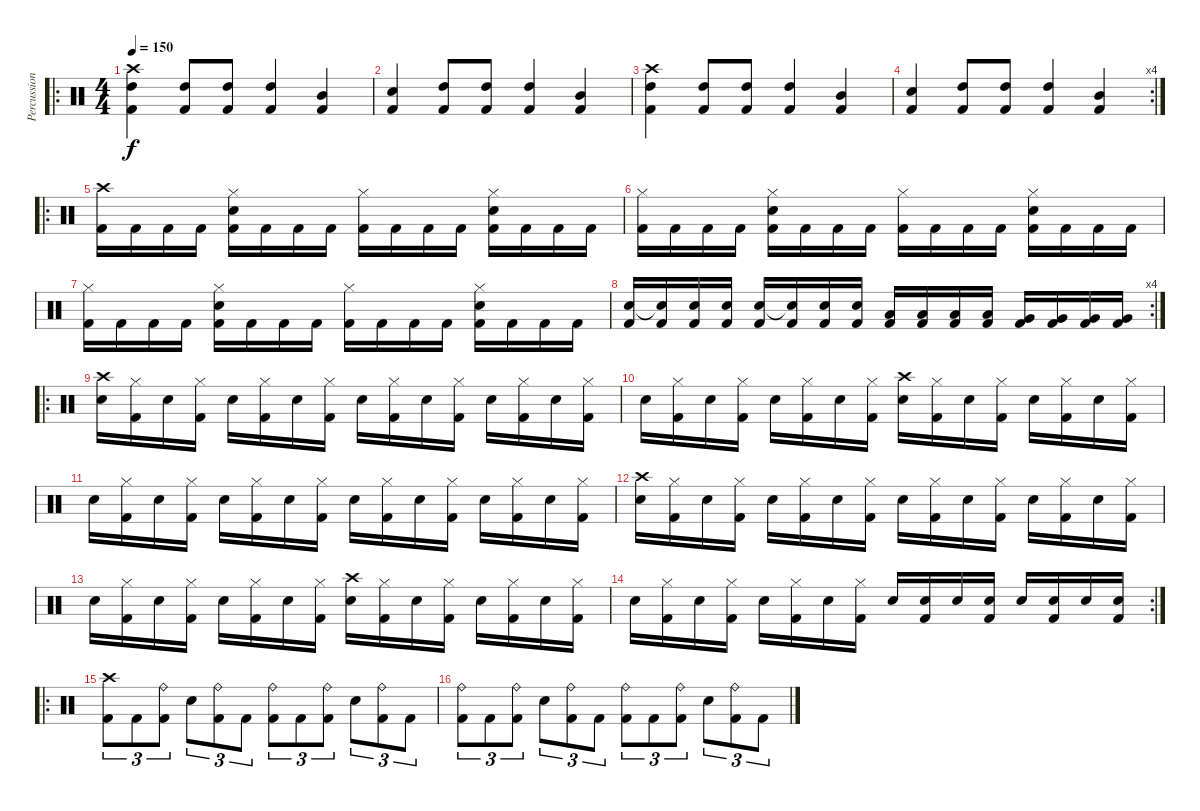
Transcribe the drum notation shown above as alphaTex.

\track ("Percussion" "Percussion") {instrument percussion}
\staff {score}
\articulation defaults
\ro
\ts (4 4)
\tempo 150
\clef neutral
\ks c
("Crash high (hit)" "High Tom (hit)" "Kick (hit) 2").4{dy f} ("High Tom (hit)" "Kick (hit) 2").8 ("High Tom (hit)" "Kick (hit) 2").8 ("High Tom (hit)" "Kick (hit) 2").4 ("Mid Tom (hit)" "Kick (hit) 2").4 |
("Electric Snare (hit)" "Kick (hit) 2").4 ("High Tom (hit)" "Kick (hit) 2").8 ("High Tom (hit)" "Kick (hit) 2").8 ("High Tom (hit)" "Kick (hit) 2").4 ("Mid Tom (hit)" "Kick (hit) 2").4 |
("Crash high (hit)" "High Tom (hit)" "Kick (hit) 2").4 ("High Tom (hit)" "Kick (hit) 2").8 ("High Tom (hit)" "Kick (hit) 2").8 ("High Tom (hit)" "Kick (hit) 2").4 ("Mid Tom (hit)" "Kick (hit) 2").4 |
\rc 4
("Electric Snare (hit)" "Kick (hit) 2").4 ("High Tom (hit)" "Kick (hit) 2").8 ("High Tom (hit)" "Kick (hit) 2").8 ("High Tom (hit)" "Kick (hit) 2").4 ("Mid Tom (hit)" "Kick (hit) 2").4 |
\ro
("Crash high (hit)" "Kick (hit) 2").16 "Kick (hit) 2".16 "Kick (hit) 2".16 "Kick (hit) 2".16 ("Hi-Hat (closed)" "Electric Snare (hit)" "Kick (hit) 2").16 "Kick (hit) 2".16 "Kick (hit) 2".16 "Kick (hit) 2".16 ("Hi-Hat (closed)" "Kick (hit) 2").16 "Kick (hit) 2".16 "Kick (hit) 2".16 "Kick (hit) 2".16 ("Hi-Hat (closed)" "Electric Snare (hit)" "Kick (hit) 2").16 "Kick (hit) 2".16 "Kick (hit) 2".16 "Kick (hit) 2".16 |
("Hi-Hat (closed)" "Kick (hit) 2").16 "Kick (hit) 2".16 "Kick (hit) 2".16 "Kick (hit) 2".16 ("Hi-Hat (closed)" "Electric Snare (hit)" "Kick (hit) 2").16 "Kick (hit) 2".16 "Kick (hit) 2".16 "Kick (hit) 2".16 ("Hi-Hat (closed)" "Kick (hit) 2").16 "Kick (hit) 2".16 "Kick (hit) 2".16 "Kick (hit) 2".16 ("Hi-Hat (closed)" "Electric Snare (hit)" "Kick (hit) 2").16 "Kick (hit) 2".16 "Kick (hit) 2".16 "Kick (hit) 2".16 |
("Hi-Hat (closed)" "Kick (hit) 2").16 "Kick (hit) 2".16 "Kick (hit) 2".16 "Kick (hit) 2".16 ("Hi-Hat (closed)" "Electric Snare (hit)" "Kick (hit) 2").16 "Kick (hit) 2".16 "Kick (hit) 2".16 "Kick (hit) 2".16 ("Hi-Hat (closed)" "Kick (hit) 2").16 "Kick (hit) 2".16 "Kick (hit) 2".16 "Kick (hit) 2".16 ("Hi-Hat (closed)" "Electric Snare (hit)" "Kick (hit) 2").16 "Kick (hit) 2".16 "Kick (hit) 2".16 "Kick (hit) 2".16 |
\rc 4
("Electric Snare (hit)" "Kick (hit) 2").16 ("Electric Snare (hit)"{t} "Kick (hit) 2").16 ("Electric Snare (hit)" "Kick (hit) 2").16 ("Electric Snare (hit)" "Kick (hit) 2").16 ("Electric Snare (hit)" "Kick (hit) 2").16 ("Electric Snare (hit)"{t} "Kick (hit) 2").16 ("Electric Snare (hit)" "Kick (hit) 2").16 ("Electric Snare (hit)" "Kick (hit) 2").16 ("Low Tom (hit)" "Kick (hit) 2").16 ("Low Tom (hit)" "Kick (hit) 2").16 ("Low Tom (hit)" "Kick (hit) 2").16 ("Low Tom (hit)" "Kick (hit) 2").16 ("Very Low Tom (hit)" "Kick (hit) 2").16 ("Very Low Tom (hit)" "Kick (hit) 2").16 ("Very Low Tom (hit)" "Kick (hit) 2").16 ("Very Low Tom (hit)" "Kick (hit) 2").16 |
\ro
("Crash high (hit)" "Electric Snare (hit)").16 ("Hi-Hat (closed)" "Kick (hit) 2").16 "Electric Snare (hit)".16 ("Hi-Hat (closed)" "Kick (hit) 2").16 "Electric Snare (hit)".16 ("Hi-Hat (closed)" "Kick (hit) 2").16 "Electric Snare (hit)".16 ("Hi-Hat (closed)" "Kick (hit) 2").16 "Electric Snare (hit)".16 ("Hi-Hat (closed)" "Kick (hit) 2").16 "Electric Snare (hit)".16 ("Hi-Hat (closed)" "Kick (hit) 2").16 "Electric Snare (hit)".16 ("Hi-Hat (closed)" "Kick (hit) 2").16 "Electric Snare (hit)".16 ("Hi-Hat (closed)" "Kick (hit) 2").16 |
"Electric Snare (hit)".16 ("Hi-Hat (closed)" "Kick (hit) 2").16 "Electric Snare (hit)".16 ("Hi-Hat (closed)" "Kick (hit) 2").16 "Electric Snare (hit)".16 ("Hi-Hat (closed)" "Kick (hit) 2").16 "Electric Snare (hit)".16 ("Hi-Hat (closed)" "Kick (hit) 2").16 ("Crash high (hit)" "Electric Snare (hit)").16 ("Hi-Hat (closed)" "Kick (hit) 2").16 "Electric Snare (hit)".16 ("Hi-Hat (closed)" "Kick (hit) 2").16 "Electric Snare (hit)".16 ("Hi-Hat (closed)" "Kick (hit) 2").16 "Electric Snare (hit)".16 ("Hi-Hat (closed)" "Kick (hit) 2").16 |
"Electric Snare (hit)".16 ("Hi-Hat (closed)" "Kick (hit) 2").16 "Electric Snare (hit)".16 ("Hi-Hat (closed)" "Kick (hit) 2").16 "Electric Snare (hit)".16 ("Hi-Hat (closed)" "Kick (hit) 2").16 "Electric Snare (hit)".16 ("Hi-Hat (closed)" "Kick (hit) 2").16 "Electric Snare (hit)".16 ("Hi-Hat (closed)" "Kick (hit) 2").16 "Electric Snare (hit)".16 ("Hi-Hat (closed)" "Kick (hit) 2").16 "Electric Snare (hit)".16 ("Hi-Hat (closed)" "Kick (hit) 2").16 "Electric Snare (hit)".16 ("Hi-Hat (closed)" "Kick (hit) 2").16 |
("Crash high (hit)" "Electric Snare (hit)").16 ("Hi-Hat (closed)" "Kick (hit) 2").16 "Electric Snare (hit)".16 ("Hi-Hat (closed)" "Kick (hit) 2").16 "Electric Snare (hit)".16 ("Hi-Hat (closed)" "Kick (hit) 2").16 "Electric Snare (hit)".16 ("Hi-Hat (closed)" "Kick (hit) 2").16 "Electric Snare (hit)".16 ("Hi-Hat (closed)" "Kick (hit) 2").16 "Electric Snare (hit)".16 ("Hi-Hat (closed)" "Kick (hit) 2").16 "Electric Snare (hit)".16 ("Hi-Hat (closed)" "Kick (hit) 2").16 "Electric Snare (hit)".16 ("Hi-Hat (closed)" "Kick (hit) 2").16 |
"Electric Snare (hit)".16 ("Hi-Hat (closed)" "Kick (hit) 2").16 "Electric Snare (hit)".16 ("Hi-Hat (closed)" "Kick (hit) 2").16 "Electric Snare (hit)".16 ("Hi-Hat (closed)" "Kick (hit) 2").16 "Electric Snare (hit)".16 ("Hi-Hat (closed)" "Kick (hit) 2").16 ("Crash high (hit)" "Electric Snare (hit)").16 ("Hi-Hat (closed)" "Kick (hit) 2").16 "Electric Snare (hit)".16 ("Hi-Hat (closed)" "Kick (hit) 2").16 "Electric Snare (hit)".16 ("Hi-Hat (closed)" "Kick (hit) 2").16 "Electric Snare (hit)".16 ("Hi-Hat (closed)" "Kick (hit) 2").16 |
\rc 2 "Electric Snare (hit)".16
("Hi-Hat (closed)" "Kick (hit) 2").16 "Electric Snare (hit)".16 ("Hi-Hat (closed)" "Kick (hit) 2").16 "Electric Snare (hit)".16 ("Hi-Hat (closed)" "Kick (hit) 2").16 "Electric Snare (hit)".16 ("Hi-Hat (closed)" "Kick (hit) 2").16 "Electric Snare (hit)".16 ("Electric Snare (hit)" "Kick (hit) 2").16 "Electric Snare (hit)".16 ("Electric Snare (hit)" "Kick (hit) 2").16 "Electric Snare (hit)".16 ("Electric Snare (hit)" "Kick (hit) 2").16 "Electric Snare (hit)".16 ("Electric Snare (hit)" "Kick (hit) 2").16 |
\ro
("Crash high (hit)" "Kick (hit) 2").8{tu (3 2)} "Kick (hit) 2".8{tu (3 2)} ("Ride (bell)" "Kick (hit) 2").8{tu (3 2)} "Electric Snare (hit)".8{tu (3 2)} ("Ride (bell)" "Kick (hit) 2").8{tu (3 2)} "Kick (hit) 2".8{tu (3 2)} ("Ride (bell)" "Kick (hit) 2").8{tu (3 2)} "Kick (hit) 2".8{tu (3 2)} ("Ride (bell)" "Kick (hit) 2").8{tu (3 2)} "Electric Snare (hit)".8{tu (3 2)} ("Ride (bell)" "Kick (hit) 2").8{tu (3 2)} "Kick (hit) 2".8{tu (3 2)} |
("Ride (bell)" "Kick (hit) 2").8{tu (3 2)} "Kick (hit) 2".8{tu (3 2)} ("Ride (bell)" "Kick (hit) 2").8{tu (3 2)} "Electric Snare (hit)".8{tu (3 2)} ("Ride (bell)" "Kick (hit) 2").8{tu (3 2)} "Kick (hit) 2".8{tu (3 2)} ("Ride (bell)" "Kick (hit) 2").8{tu (3 2)} "Kick (hit) 2".8{tu (3 2)} ("Ride (bell)" "Kick (hit) 2").8{tu (3 2)} "Electric Snare (hit)".8{tu (3 2)} ("Ride (bell)" "Kick (hit) 2").8{tu (3 2)} "Kick (hit) 2".8{tu (3 2)}
